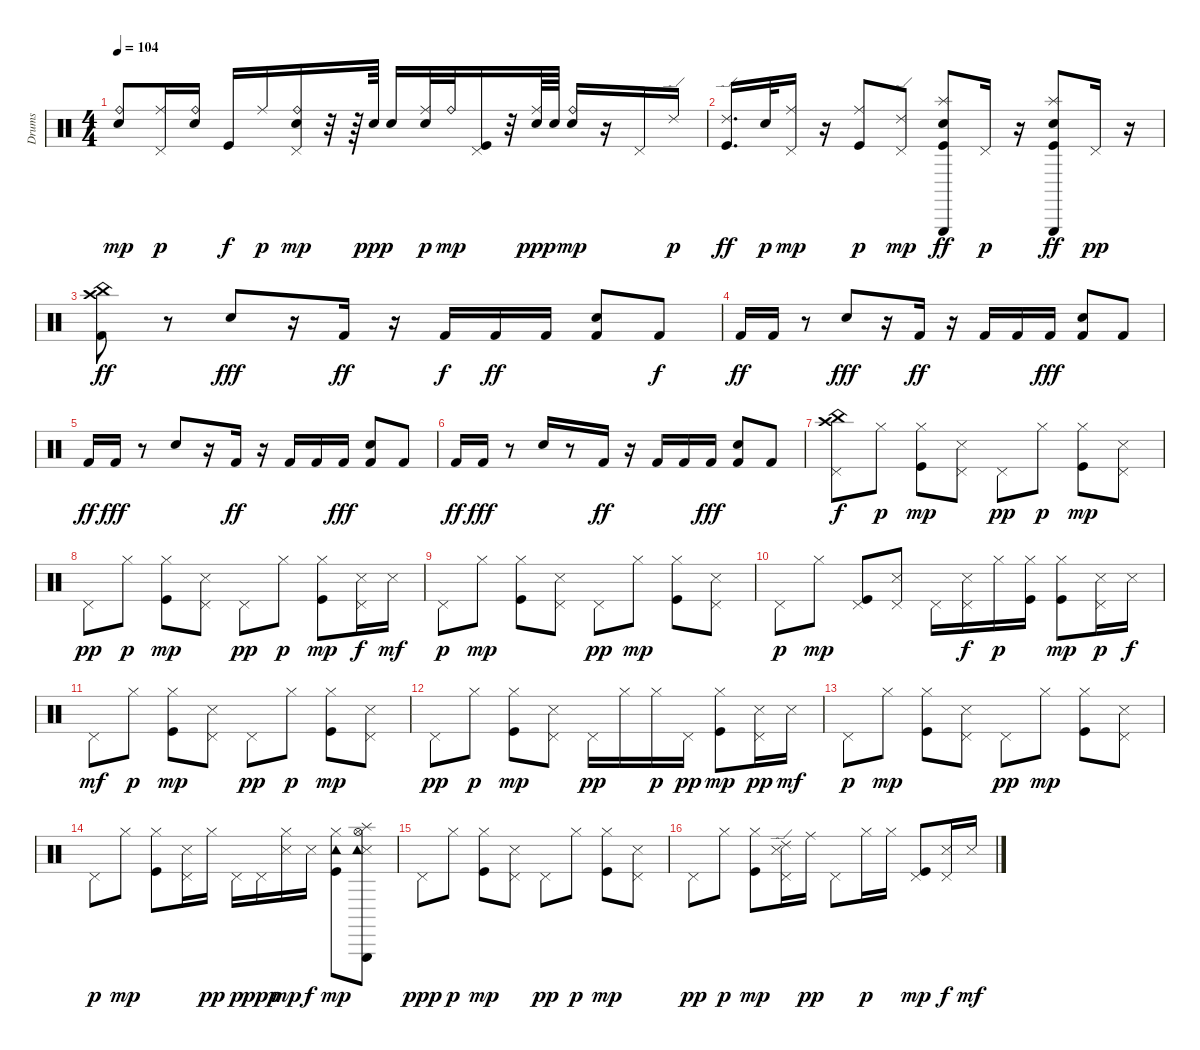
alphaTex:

\track ("Drums" "Drums") {instrument percussion}
\staff {score}
\articulation defaults
\ts (4 4)
\tempo 104
\clef neutral
\ks c
("Ride (bell)" "Electric Snare (hit)").8{dy mp} ("Pedal Hi-Hat (hit)" "Ride (middle)").16{dy p} ("Ride (bell)" "Electric Snare (hit)").16 "Kick (hit)".16{dy f} "Ride (middle)".16{dy p} ("Pedal Hi-Hat (hit)" "Ride (bell)" "Electric Snare (hit)").16{dy mp} r.32 r.64 "Electric Snare (hit)".64{dy ppp} "Electric Snare (hit)".16 ("Ride (middle)" "Electric Snare (hit)").32{dy p} "Ride (bell)".32{dy mp} ("Pedal Hi-Hat (hit)" "Kick (hit)").16 r.32 ("Ride (middle)" "Electric Snare (hit)").64{dy ppp} "Electric Snare (hit)".64 ("Ride (bell)" "Electric Snare (hit)").16{dy mp} r.16 "Pedal Hi-Hat (hit)".16 "Ride (edge) 2".16{dy p} |
("Ride (edge) 2" "Kick (hit)").16{d dy ff} "Electric Snare (hit)".32{dy p} ("Pedal Hi-Hat (hit)" "Ride (middle)").16{dy mp} r.16 ("Ride (middle)" "Kick (hit)").8{dy p} ("Pedal Hi-Hat (hit)" "Ride (edge) 2").8{dy mp} ("Splash (hit)" "Electric Snare (hit)" "Triangle (hit)" "Kick (hit)").8{dy ff} "Pedal Hi-Hat (hit)".16{dy p} r.16 ("Splash (hit)" "Electric Snare (hit)" "Triangle (hit)" "Kick (hit)").8{dy ff} "Pedal Hi-Hat (hit)".16{dy pp} r.16 |
("Crash high (hit)" "China (hit)" "Kick (hit) 2").8{dy ff} r.8 "Snare (hit) 2".8{dy fff} r.16 "Kick (hit) 2".16{dy ff} r.16 "Kick (hit) 2".16{dy f} "Kick (hit) 2".16{dy ff} "Kick (hit) 2".16 ("Snare (hit) 2" "Kick (hit) 2").8 "Kick (hit) 2".8{dy f} |
"Kick (hit) 2".16{dy ff} "Kick (hit) 2".16 r.8 "Snare (hit) 2".8{dy fff} r.16 "Kick (hit) 2".16{dy ff} r.16 "Kick (hit) 2".16 "Kick (hit) 2".16 "Kick (hit) 2".16{dy fff} ("Snare (hit) 2" "Kick (hit) 2").8 "Kick (hit) 2".8 |
"Kick (hit) 2".16{dy ff} "Kick (hit) 2".16{dy fff} r.8 "Snare (hit) 2".8 r.16 "Kick (hit) 2".16{dy ff} r.16 "Kick (hit) 2".16 "Kick (hit) 2".16 "Kick (hit) 2".16{dy fff} ("Snare (hit) 2" "Kick (hit) 2").8 "Kick (hit) 2".8 |
"Kick (hit) 2".16{dy ff} "Kick (hit) 2".16{dy fff} r.8 "Snare (hit) 2".16 r.8 "Kick (hit) 2".16{dy ff} r.16 "Kick (hit) 2".16 "Kick (hit) 2".16 "Kick (hit) 2".16{dy fff} ("Snare (hit) 2" "Kick (hit) 2").8 "Kick (hit) 2".8 |
("Pedal Hi-Hat (hit)" "Crash high (hit)" "China (hit)").8{dy f} "Hi-Hat (closed)".8{dy p} ("Hi-Hat (closed)" "Kick (hit)").8{dy mp} ("Pedal Hi-Hat (hit)" "Snare (side stick) 3").8 "Pedal Hi-Hat (hit)".8{dy pp} "Hi-Hat (closed)".8{dy p} ("Hi-Hat (closed)" "Kick (hit)").8{dy mp} ("Pedal Hi-Hat (hit)" "Snare (side stick) 3").8 |
"Pedal Hi-Hat (hit)".8{dy pp} "Hi-Hat (closed)".8{dy p} ("Hi-Hat (closed)" "Kick (hit)").8{dy mp} ("Pedal Hi-Hat (hit)" "Snare (side stick) 3").8 "Pedal Hi-Hat (hit)".8{dy pp} "Hi-Hat (closed)".8{dy p} ("Hi-Hat (closed)" "Kick (hit)").8{dy mp} ("Pedal Hi-Hat (hit)" "Snare (side stick) 3").16{dy f} "Snare (side stick) 3".16{dy mf} |
"Pedal Hi-Hat (hit)".8{dy p} "Hi-Hat (closed)".8{dy mp} ("Hi-Hat (closed)" "Kick (hit)").8 ("Pedal Hi-Hat (hit)" "Snare (side stick) 3").8 "Pedal Hi-Hat (hit)".8{dy pp} "Hi-Hat (closed)".8{dy mp} ("Hi-Hat (closed)" "Kick (hit)").8 ("Pedal Hi-Hat (hit)" "Snare (side stick) 3").8 |
"Pedal Hi-Hat (hit)".8{dy p} "Hi-Hat (closed)".8{dy mp} ("Pedal Hi-Hat (hit)" "Kick (hit)").8 ("Pedal Hi-Hat (hit)" "Snare (side stick) 3").8 "Pedal Hi-Hat (hit)".16 ("Pedal Hi-Hat (hit)" "Snare (side stick) 3").16{dy f} "Hi-Hat (closed)".16{dy p} ("Hi-Hat (closed)" "Kick (hit)").16 ("Hi-Hat (closed)" "Kick (hit)").8{dy mp} ("Pedal Hi-Hat (hit)" "Snare (side stick) 3").16{dy p} "Snare (side stick) 3".16{dy f} |
"Pedal Hi-Hat (hit)".8{dy mf} "Hi-Hat (closed)".8{dy p} ("Hi-Hat (closed)" "Kick (hit)").8{dy mp} ("Pedal Hi-Hat (hit)" "Snare (side stick) 3").8 "Pedal Hi-Hat (hit)".8{dy pp} "Hi-Hat (closed)".8{dy p} ("Hi-Hat (closed)" "Kick (hit)").8{dy mp} ("Pedal Hi-Hat (hit)" "Snare (side stick) 3").8 |
"Pedal Hi-Hat (hit)".8{dy pp} "Hi-Hat (closed)".8{dy p} ("Hi-Hat (closed)" "Kick (hit)").8{dy mp} ("Pedal Hi-Hat (hit)" "Snare (side stick) 3").8 "Pedal Hi-Hat (hit)".16{dy pp} "Hi-Hat (closed)".16 "Hi-Hat (closed)".16{dy p} "Pedal Hi-Hat (hit)".16{dy pp} ("Hi-Hat (closed)" "Kick (hit)").8{dy mp} ("Pedal Hi-Hat (hit)" "Snare (side stick) 3").16{dy pp} "Snare (side stick) 3".16{dy mf} |
"Pedal Hi-Hat (hit)".8{dy p} "Hi-Hat (closed)".8{dy mp} ("Hi-Hat (closed)" "Kick (hit)").8 ("Pedal Hi-Hat (hit)" "Snare (side stick) 3").8 "Pedal Hi-Hat (hit)".8{dy pp} "Hi-Hat (closed)".8{dy mp} ("Hi-Hat (closed)" "Kick (hit)").8 ("Pedal Hi-Hat (hit)" "Snare (side stick) 3").8 |
"Pedal Hi-Hat (hit)".8{dy p} "Hi-Hat (closed)".8{dy mp} ("Hi-Hat (closed)" "Kick (hit)").8 ("Pedal Hi-Hat (hit)" "Snare (side stick) 3").16 "Hi-Hat (closed)".16{dy pp} "Pedal Hi-Hat (hit)".16{dy p} "Pedal Hi-Hat (hit)".16{dy ppp} ("Hi-Hat (closed)" "Snare (side stick) 3").16{dy mp} "Snare (side stick) 3".16{dy f} ("Hi-Hat (closed)" "Tambourine (hit)" "Kick (hit)").8{dy mp} ("Hi-Hat (open)" "Splash (hit)" "Snare (side stick) 3" "Tambourine (hit)" "Triangle (hit)").8 |
"Pedal Hi-Hat (hit)".8{dy ppp} "Hi-Hat (closed)".8{dy p} ("Hi-Hat (closed)" "Kick (hit)").8{dy mp} ("Pedal Hi-Hat (hit)" "Snare (side stick) 3").8 "Pedal Hi-Hat (hit)".8{dy pp} "Hi-Hat (closed)".8{dy p} ("Hi-Hat (closed)" "Kick (hit)").8{dy mp} ("Pedal Hi-Hat (hit)" "Snare (side stick) 3").8 |
"Pedal Hi-Hat (hit)".8{dy pp} "Hi-Hat (closed)".8{dy p} ("Hi-Hat (closed)" "Kick (hit)").8{dy mp} ("Pedal Hi-Hat (hit)" "Ride (edge) 2" "Snare (side stick) 3").16 "Ride (middle)".16{dy pp} "Pedal Hi-Hat (hit)".8 "Hi-Hat (closed)".16{dy p} "Hi-Hat (closed)".16 ("Pedal Hi-Hat (hit)" "Kick (hit)").8{dy mp} ("Pedal Hi-Hat (hit)" "Snare (side stick) 3").16{dy f} "Snare (side stick) 3".16{dy mf}
